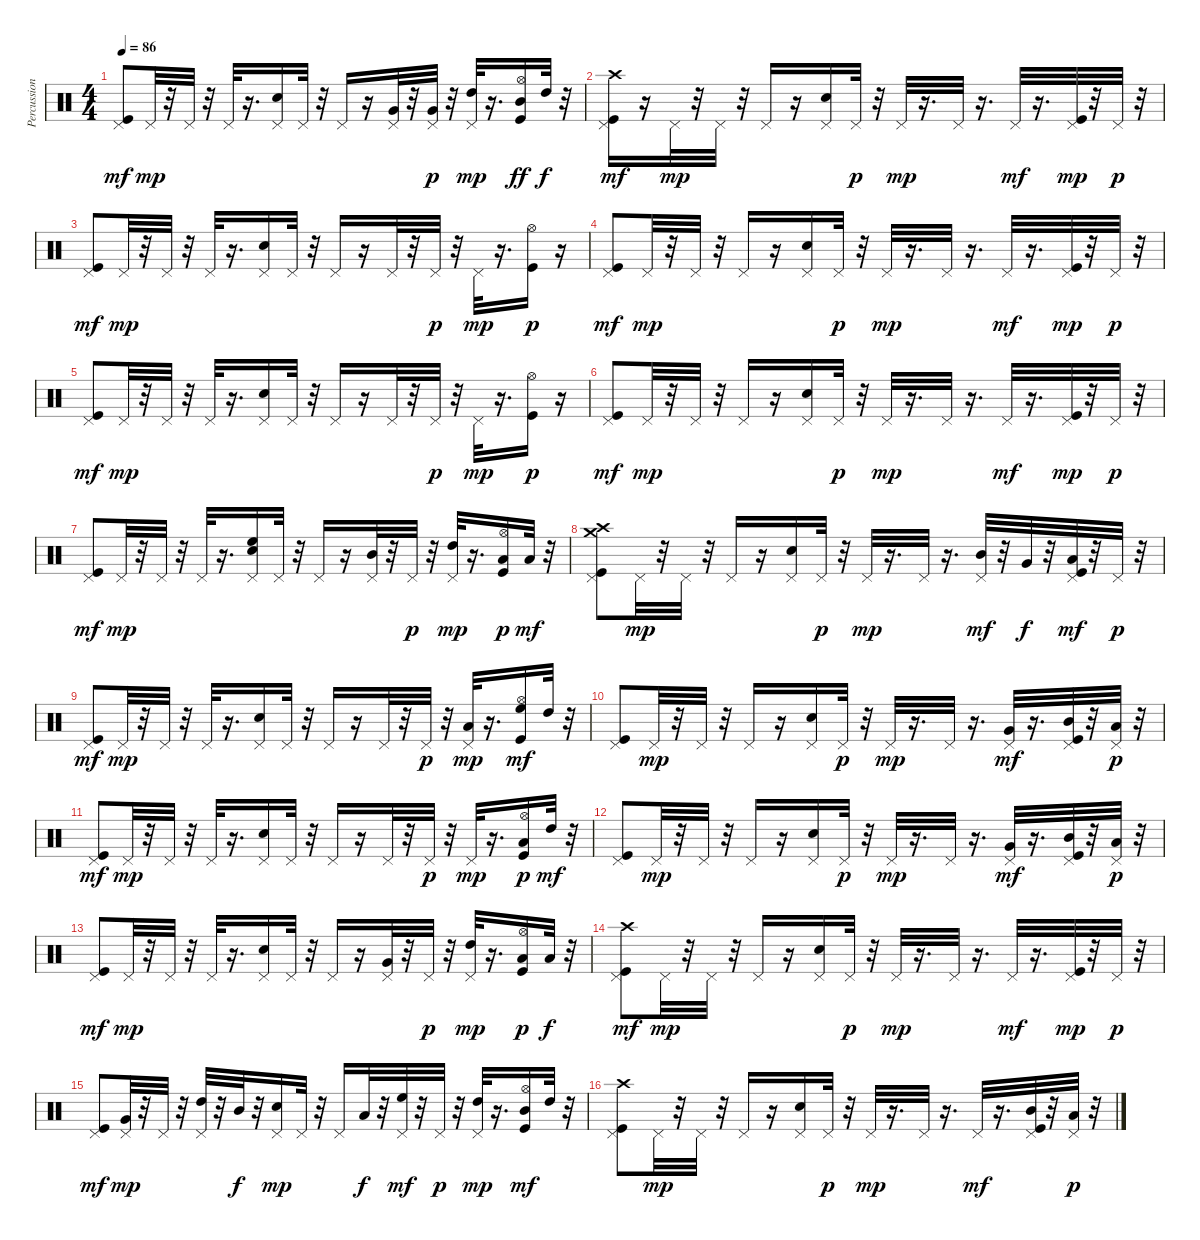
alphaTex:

\track ("Percussions" "Percussion") {instrument percussion}
\staff {score}
\articulation defaults
\ts (4 4)
\tempo 86
\clef neutral
\ks c
("Kick (hit)" "Pedal Hi-Hat (hit)").8{dy mf} "Pedal Hi-Hat (hit)".32{dy mp} r.32 "Pedal Hi-Hat (hit)".32 r.32 "Pedal Hi-Hat (hit)".32 r.16{d} ("Electric Snare (hit)" "Pedal Hi-Hat (hit)").16 "Pedal Hi-Hat (hit)".32 r.32 "Pedal Hi-Hat (hit)".16 r.16 ("Very Low Tom (hit)" "Pedal Hi-Hat (hit)").32 r.32 ("Very Low Tom (hit)" "Pedal Hi-Hat (hit)").32{dy p} r.32 ("Pedal Hi-Hat (hit)" "High Tom (hit)").32{dy mp} r.16{d} ("Kick (hit)" "Hi-Hat (open)" "Mid Tom (hit)").16{dy ff} "High Tom (hit)".32{dy f} r.32 |
("Kick (hit)" "Pedal Hi-Hat (hit)" "Crash high (hit)").16{dy mf} r.16 "Pedal Hi-Hat (hit)".32{dy mp} r.32 "Pedal Hi-Hat (hit)".32 r.32 "Pedal Hi-Hat (hit)".16 r.16 ("Electric Snare (hit)" "Pedal Hi-Hat (hit)").16 "Pedal Hi-Hat (hit)".32{dy p} r.32 "Pedal Hi-Hat (hit)".32{dy mp} r.16{d} "Pedal Hi-Hat (hit)".32 r.16{d} "Pedal Hi-Hat (hit)".32{dy mf} r.16{d} ("Kick (hit)" "Pedal Hi-Hat (hit)").32{dy mp} r.32 "Pedal Hi-Hat (hit)".32{dy p} r.32 |
("Kick (hit)" "Pedal Hi-Hat (hit)").8{dy mf} "Pedal Hi-Hat (hit)".32{dy mp} r.32 "Pedal Hi-Hat (hit)".32 r.32 "Pedal Hi-Hat (hit)".32 r.16{d} ("Electric Snare (hit)" "Pedal Hi-Hat (hit)").16 "Pedal Hi-Hat (hit)".32 r.32 "Pedal Hi-Hat (hit)".16 r.16 "Pedal Hi-Hat (hit)".32 r.32 "Pedal Hi-Hat (hit)".32{dy p} r.32 "Pedal Hi-Hat (hit)".32{dy mp} r.16{d} ("Kick (hit)" "Hi-Hat (open)").16{dy p} r.16 |
("Kick (hit)" "Pedal Hi-Hat (hit)").8{dy mf} "Pedal Hi-Hat (hit)".32{dy mp} r.32 "Pedal Hi-Hat (hit)".32 r.32 "Pedal Hi-Hat (hit)".16 r.16 ("Electric Snare (hit)" "Pedal Hi-Hat (hit)").16 "Pedal Hi-Hat (hit)".32{dy p} r.32 "Pedal Hi-Hat (hit)".32{dy mp} r.16{d} "Pedal Hi-Hat (hit)".32 r.16{d} "Pedal Hi-Hat (hit)".32{dy mf} r.16{d} ("Kick (hit)" "Pedal Hi-Hat (hit)").32{dy mp} r.32 "Pedal Hi-Hat (hit)".32{dy p} r.32 |
("Kick (hit)" "Pedal Hi-Hat (hit)").8{dy mf} "Pedal Hi-Hat (hit)".32{dy mp} r.32 "Pedal Hi-Hat (hit)".32 r.32 "Pedal Hi-Hat (hit)".32 r.16{d} ("Electric Snare (hit)" "Pedal Hi-Hat (hit)").16 "Pedal Hi-Hat (hit)".32 r.32 "Pedal Hi-Hat (hit)".16 r.16 "Pedal Hi-Hat (hit)".32 r.32 "Pedal Hi-Hat (hit)".32{dy p} r.32 "Pedal Hi-Hat (hit)".32{dy mp} r.16{d} ("Kick (hit)" "Hi-Hat (open)").16{dy p} r.16 |
("Kick (hit)" "Pedal Hi-Hat (hit)").8{dy mf} "Pedal Hi-Hat (hit)".32{dy mp} r.32 "Pedal Hi-Hat (hit)".32 r.32 "Pedal Hi-Hat (hit)".16 r.16 ("Electric Snare (hit)" "Pedal Hi-Hat (hit)").16 "Pedal Hi-Hat (hit)".32{dy p} r.32 "Pedal Hi-Hat (hit)".32{dy mp} r.16{d} "Pedal Hi-Hat (hit)".32 r.16{d} "Pedal Hi-Hat (hit)".32{dy mf} r.16{d} ("Kick (hit)" "Pedal Hi-Hat (hit)").32{dy mp} r.32 "Pedal Hi-Hat (hit)".32{dy p} r.32 |
("Kick (hit)" "Pedal Hi-Hat (hit)").8{dy mf} "Pedal Hi-Hat (hit)".32{dy mp} r.32 "Pedal Hi-Hat (hit)".32 r.32 "Pedal Hi-Hat (hit)".32 r.16{d} ("Electric Snare (hit)" "Pedal Hi-Hat (hit)" "High Floor Tom (hit)").16 "Pedal Hi-Hat (hit)".32 r.32 "Pedal Hi-Hat (hit)".16 r.16 ("Pedal Hi-Hat (hit)" "Mid Tom (hit)").32 r.32 "Pedal Hi-Hat (hit)".32{dy p} r.32 ("Pedal Hi-Hat (hit)" "High Tom (hit)").32{dy mp} r.16{d} ("Kick (hit)" "Low Tom (hit)" "Hi-Hat (open)").16{dy p} "Low Tom (hit)".32{dy mf} r.32 |
("Kick (hit)" "Pedal Hi-Hat (hit)" "Crash high (hit)" "Crash medium (hit)").8 "Pedal Hi-Hat (hit)".32{dy mp} r.32 "Pedal Hi-Hat (hit)".32 r.32 "Pedal Hi-Hat (hit)".16 r.16 ("Electric Snare (hit)" "Pedal Hi-Hat (hit)").16 "Pedal Hi-Hat (hit)".32{dy p} r.32 "Pedal Hi-Hat (hit)".32{dy mp} r.16{d} "Pedal Hi-Hat (hit)".32 r.16{d} ("Pedal Hi-Hat (hit)" "Mid Tom (hit)").32{dy mf} r.32 "Very Low Tom (hit)".32{dy f} r.32 ("Kick (hit)" "Pedal Hi-Hat (hit)" "Low Tom (hit)").32{dy mf} r.32 "Pedal Hi-Hat (hit)".32{dy p} r.32 |
("Kick (hit)" "Pedal Hi-Hat (hit)").8{dy mf} "Pedal Hi-Hat (hit)".32{dy mp} r.32 "Pedal Hi-Hat (hit)".32 r.32 "Pedal Hi-Hat (hit)".32 r.16{d} ("Electric Snare (hit)" "Pedal Hi-Hat (hit)").16 "Pedal Hi-Hat (hit)".32 r.32 "Pedal Hi-Hat (hit)".16 r.16 "Pedal Hi-Hat (hit)".32 r.32 "Pedal Hi-Hat (hit)".32{dy p} r.32 ("Pedal Hi-Hat (hit)" "Low Tom (hit)").32{dy mp} r.16{d} ("Kick (hit)" "Hi-Hat (open)" "High Floor Tom (hit)").16{dy mf} "High Tom (hit)".32 r.32 |
("Kick (hit)" "Pedal Hi-Hat (hit)").8 "Pedal Hi-Hat (hit)".32{dy mp} r.32 "Pedal Hi-Hat (hit)".32 r.32 "Pedal Hi-Hat (hit)".16 r.16 ("Electric Snare (hit)" "Pedal Hi-Hat (hit)").16 "Pedal Hi-Hat (hit)".32{dy p} r.32 "Pedal Hi-Hat (hit)".32{dy mp} r.16{d} "Pedal Hi-Hat (hit)".32 r.16{d} ("Very Low Tom (hit)" "Pedal Hi-Hat (hit)").32{dy mf} r.16{d} ("Kick (hit)" "Pedal Hi-Hat (hit)" "Mid Tom (hit)").32 r.32 ("Low Tom (hit)" "Pedal Hi-Hat (hit)").32{dy p} r.32 |
("Kick (hit)" "Pedal Hi-Hat (hit)").8{dy mf} "Pedal Hi-Hat (hit)".32{dy mp} r.32 "Pedal Hi-Hat (hit)".32 r.32 "Pedal Hi-Hat (hit)".32 r.16{d} ("Electric Snare (hit)" "Pedal Hi-Hat (hit)").16 "Pedal Hi-Hat (hit)".32 r.32 "Pedal Hi-Hat (hit)".16 r.16 "Pedal Hi-Hat (hit)".32 r.32 "Pedal Hi-Hat (hit)".32{dy p} r.32 "Pedal Hi-Hat (hit)".32{dy mp} r.16{d} ("Kick (hit)" "Low Tom (hit)" "Hi-Hat (open)").16{dy p} "High Tom (hit)".32{dy mf} r.32 |
("Kick (hit)" "Pedal Hi-Hat (hit)").8 "Pedal Hi-Hat (hit)".32{dy mp} r.32 "Pedal Hi-Hat (hit)".32 r.32 "Pedal Hi-Hat (hit)".16 r.16 ("Electric Snare (hit)" "Pedal Hi-Hat (hit)").16 "Pedal Hi-Hat (hit)".32{dy p} r.32 "Pedal Hi-Hat (hit)".32{dy mp} r.16{d} "Pedal Hi-Hat (hit)".32 r.16{d} ("Very Low Tom (hit)" "Pedal Hi-Hat (hit)").32{dy mf} r.16{d} ("Kick (hit)" "Pedal Hi-Hat (hit)" "Mid Tom (hit)").32 r.32 ("Low Tom (hit)" "Pedal Hi-Hat (hit)").32{dy p} r.32 |
("Kick (hit)" "Pedal Hi-Hat (hit)").8{dy mf} "Pedal Hi-Hat (hit)".32{dy mp} r.32 "Pedal Hi-Hat (hit)".32 r.32 "Pedal Hi-Hat (hit)".32 r.16{d} ("Electric Snare (hit)" "Pedal Hi-Hat (hit)").16 "Pedal Hi-Hat (hit)".32 r.32 "Pedal Hi-Hat (hit)".16 r.16 ("Very Low Tom (hit)" "Pedal Hi-Hat (hit)").32 r.32 "Pedal Hi-Hat (hit)".32{dy p} r.32 ("Pedal Hi-Hat (hit)" "High Tom (hit)").32{dy mp} r.16{d} ("Kick (hit)" "Low Tom (hit)" "Hi-Hat (open)").16{dy p} "Low Tom (hit)".32{dy f} r.32 |
("Kick (hit)" "Pedal Hi-Hat (hit)" "Crash high (hit)").8{dy mf} "Pedal Hi-Hat (hit)".32{dy mp} r.32 "Pedal Hi-Hat (hit)".32 r.32 "Pedal Hi-Hat (hit)".16 r.16 ("Electric Snare (hit)" "Pedal Hi-Hat (hit)").16 "Pedal Hi-Hat (hit)".32{dy p} r.32 "Pedal Hi-Hat (hit)".32{dy mp} r.16{d} "Pedal Hi-Hat (hit)".32 r.16{d} "Pedal Hi-Hat (hit)".32{dy mf} r.16{d} ("Kick (hit)" "Pedal Hi-Hat (hit)").32{dy mp} r.32 "Pedal Hi-Hat (hit)".32{dy p} r.32 |
("Kick (hit)" "Pedal Hi-Hat (hit)").8{dy mf} ("Very Low Tom (hit)" "Pedal Hi-Hat (hit)").32{dy mp} r.32 "Pedal Hi-Hat (hit)".32 r.32 ("Pedal Hi-Hat (hit)" "High Tom (hit)").32 r.32 "Mid Tom (hit)".32{dy f} r.32 ("Electric Snare (hit)" "Pedal Hi-Hat (hit)").16{dy mp} "Pedal Hi-Hat (hit)".32 r.32 "Pedal Hi-Hat (hit)".16 "Low Tom (hit)".32{dy f} r.32 ("Pedal Hi-Hat (hit)" "High Floor Tom (hit)").32{dy mf} r.32 "Pedal Hi-Hat (hit)".32{dy p} r.32 ("Pedal Hi-Hat (hit)" "High Tom (hit)").32{dy mp} r.16{d} ("Kick (hit)" "Hi-Hat (open)" "Mid Tom (hit)").16{dy mf} "High Tom (hit)".32 r.32 |
("Kick (hit)" "Pedal Hi-Hat (hit)" "Crash high (hit)").8 "Pedal Hi-Hat (hit)".32{dy mp} r.32 "Pedal Hi-Hat (hit)".32 r.32 "Pedal Hi-Hat (hit)".16 r.16 ("Electric Snare (hit)" "Pedal Hi-Hat (hit)").16 "Pedal Hi-Hat (hit)".32{dy p} r.32 "Pedal Hi-Hat (hit)".32{dy mp} r.16{d} "Pedal Hi-Hat (hit)".32 r.16{d} "Pedal Hi-Hat (hit)".32{dy mf} r.16{d} ("Kick (hit)" "Pedal Hi-Hat (hit)" "Mid Tom (hit)").32 r.32 ("Low Tom (hit)" "Pedal Hi-Hat (hit)").32{dy p} r.32
